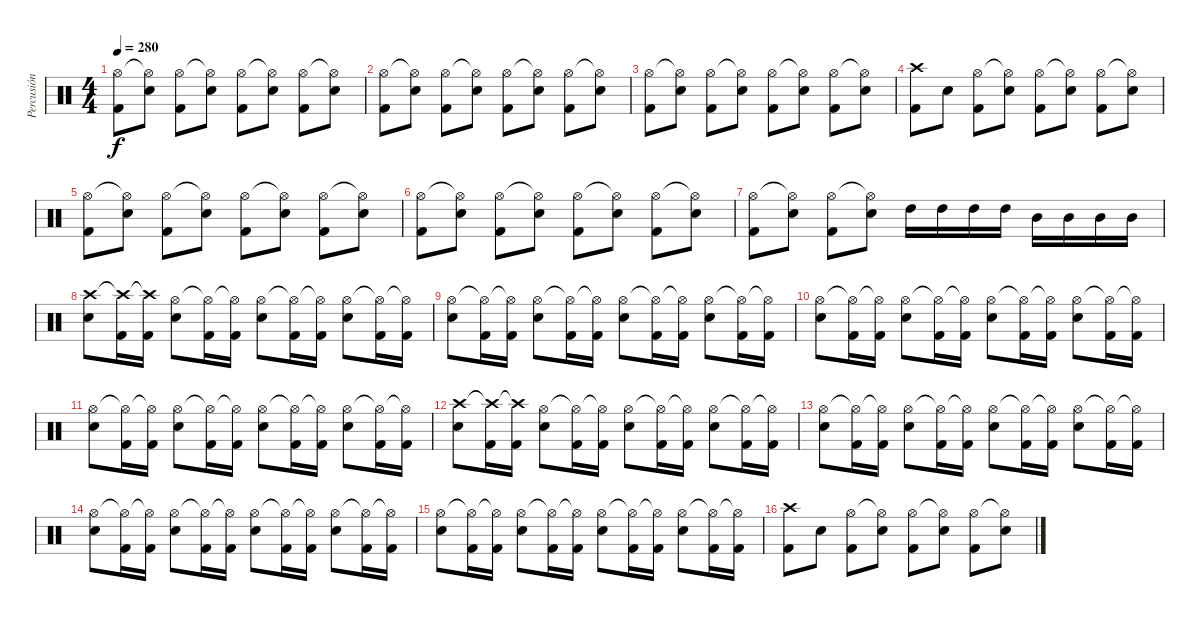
\track ("Percusión" "Percusión") {instrument percussion}
\staff {score}
\articulation defaults
\ts (4 4)
\tempo 280
\clef neutral
\ks c
("Kick (hit) 2" "Hi-Hat (open)").8{dy f} ("Snare (hit) 2" "Hi-Hat (open)"{t}).8 ("Kick (hit) 2" "Hi-Hat (open)").8 ("Snare (hit) 2" "Hi-Hat (open)"{t}).8 ("Kick (hit) 2" "Hi-Hat (open)").8 ("Snare (hit) 2" "Hi-Hat (open)"{t}).8 ("Kick (hit) 2" "Hi-Hat (open)").8 ("Snare (hit) 2" "Hi-Hat (open)"{t}).8 |
("Kick (hit) 2" "Hi-Hat (open)").8 ("Snare (hit) 2" "Hi-Hat (open)"{t}).8 ("Kick (hit) 2" "Hi-Hat (open)").8 ("Snare (hit) 2" "Hi-Hat (open)"{t}).8 ("Kick (hit) 2" "Hi-Hat (open)").8 ("Snare (hit) 2" "Hi-Hat (open)"{t}).8 ("Kick (hit) 2" "Hi-Hat (open)").8 ("Snare (hit) 2" "Hi-Hat (open)"{t}).8 |
("Kick (hit) 2" "Hi-Hat (open)").8 ("Snare (hit) 2" "Hi-Hat (open)"{t}).8 ("Kick (hit) 2" "Hi-Hat (open)").8 ("Snare (hit) 2" "Hi-Hat (open)"{t}).8 ("Kick (hit) 2" "Hi-Hat (open)").8 ("Snare (hit) 2" "Hi-Hat (open)"{t}).8 ("Kick (hit) 2" "Hi-Hat (open)").8 ("Snare (hit) 2" "Hi-Hat (open)"{t}).8 |
("Kick (hit) 2" "Crash high (hit)").8 "Snare (hit) 2".8 ("Kick (hit) 2" "Hi-Hat (open)").8 ("Snare (hit) 2" "Hi-Hat (open)"{t}).8 ("Kick (hit) 2" "Hi-Hat (open)").8 ("Snare (hit) 2" "Hi-Hat (open)"{t}).8 ("Kick (hit) 2" "Hi-Hat (open)").8 ("Snare (hit) 2" "Hi-Hat (open)"{t}).8 |
("Kick (hit) 2" "Hi-Hat (open)").8 ("Snare (hit) 2" "Hi-Hat (open)"{t}).8 ("Kick (hit) 2" "Hi-Hat (open)").8 ("Snare (hit) 2" "Hi-Hat (open)"{t}).8 ("Kick (hit) 2" "Hi-Hat (open)").8 ("Snare (hit) 2" "Hi-Hat (open)"{t}).8 ("Kick (hit) 2" "Hi-Hat (open)").8 ("Snare (hit) 2" "Hi-Hat (open)"{t}).8 |
("Kick (hit) 2" "Hi-Hat (open)").8 ("Snare (hit) 2" "Hi-Hat (open)"{t}).8 ("Kick (hit) 2" "Hi-Hat (open)").8 ("Snare (hit) 2" "Hi-Hat (open)"{t}).8 ("Kick (hit) 2" "Hi-Hat (open)").8 ("Snare (hit) 2" "Hi-Hat (open)"{t}).8 ("Kick (hit) 2" "Hi-Hat (open)").8 ("Snare (hit) 2" "Hi-Hat (open)"{t}).8 |
("Kick (hit) 2" "Hi-Hat (open)").8 ("Snare (hit) 2" "Hi-Hat (open)"{t}).8 ("Kick (hit) 2" "Hi-Hat (open)").8 ("Snare (hit) 2" "Hi-Hat (open)"{t}).8 "High Tom (hit)".16 "High Tom (hit)".16 "High Tom (hit)".16 "High Tom (hit)".16 "Mid Tom (hit)".16 "Mid Tom (hit)".16 "Mid Tom (hit)".16 "Mid Tom (hit)".16 |
("Snare (hit) 2" "Crash high (hit)").8 ("Kick (hit) 2" "Crash high (hit)"{t}).16 ("Kick (hit) 2" "Crash high (hit)"{t}).16 ("Snare (hit) 2" "Hi-Hat (open)").8 ("Kick (hit) 2" "Hi-Hat (open)"{t}).16 ("Kick (hit) 2" "Hi-Hat (open)"{t}).16 ("Snare (hit) 2" "Hi-Hat (open)").8 ("Kick (hit) 2" "Hi-Hat (open)"{t}).16 ("Kick (hit) 2" "Hi-Hat (open)"{t}).16 ("Snare (hit) 2" "Hi-Hat (open)").8 ("Kick (hit) 2" "Hi-Hat (open)"{t}).16 ("Kick (hit) 2" "Hi-Hat (open)"{t}).16 |
("Snare (hit) 2" "Hi-Hat (open)").8 ("Kick (hit) 2" "Hi-Hat (open)"{t}).16 ("Kick (hit) 2" "Hi-Hat (open)"{t}).16 ("Snare (hit) 2" "Hi-Hat (open)").8 ("Kick (hit) 2" "Hi-Hat (open)"{t}).16 ("Kick (hit) 2" "Hi-Hat (open)"{t}).16 ("Snare (hit) 2" "Hi-Hat (open)").8 ("Kick (hit) 2" "Hi-Hat (open)"{t}).16 ("Kick (hit) 2" "Hi-Hat (open)"{t}).16 ("Snare (hit) 2" "Hi-Hat (open)").8 ("Kick (hit) 2" "Hi-Hat (open)"{t}).16 ("Kick (hit) 2" "Hi-Hat (open)"{t}).16 |
("Snare (hit) 2" "Hi-Hat (open)").8 ("Kick (hit) 2" "Hi-Hat (open)"{t}).16 ("Kick (hit) 2" "Hi-Hat (open)"{t}).16 ("Snare (hit) 2" "Hi-Hat (open)").8 ("Kick (hit) 2" "Hi-Hat (open)"{t}).16 ("Kick (hit) 2" "Hi-Hat (open)"{t}).16 ("Snare (hit) 2" "Hi-Hat (open)").8 ("Kick (hit) 2" "Hi-Hat (open)"{t}).16 ("Kick (hit) 2" "Hi-Hat (open)"{t}).16 ("Snare (hit) 2" "Hi-Hat (open)").8 ("Kick (hit) 2" "Hi-Hat (open)"{t}).16 ("Kick (hit) 2" "Hi-Hat (open)"{t}).16 |
("Snare (hit) 2" "Hi-Hat (open)").8 ("Kick (hit) 2" "Hi-Hat (open)"{t}).16 ("Kick (hit) 2" "Hi-Hat (open)"{t}).16 ("Snare (hit) 2" "Hi-Hat (open)").8 ("Kick (hit) 2" "Hi-Hat (open)"{t}).16 ("Kick (hit) 2" "Hi-Hat (open)"{t}).16 ("Snare (hit) 2" "Hi-Hat (open)").8 ("Kick (hit) 2" "Hi-Hat (open)"{t}).16 ("Kick (hit) 2" "Hi-Hat (open)"{t}).16 ("Snare (hit) 2" "Hi-Hat (open)").8 ("Kick (hit) 2" "Hi-Hat (open)"{t}).16 ("Kick (hit) 2" "Hi-Hat (open)"{t}).16 |
("Snare (hit) 2" "Crash high (hit)").8 ("Kick (hit) 2" "Crash high (hit)"{t}).16 ("Kick (hit) 2" "Crash high (hit)"{t}).16 ("Snare (hit) 2" "Hi-Hat (open)").8 ("Kick (hit) 2" "Hi-Hat (open)"{t}).16 ("Kick (hit) 2" "Hi-Hat (open)"{t}).16 ("Snare (hit) 2" "Hi-Hat (open)").8 ("Kick (hit) 2" "Hi-Hat (open)"{t}).16 ("Kick (hit) 2" "Hi-Hat (open)"{t}).16 ("Snare (hit) 2" "Hi-Hat (open)").8 ("Kick (hit) 2" "Hi-Hat (open)"{t}).16 ("Kick (hit) 2" "Hi-Hat (open)"{t}).16 |
("Snare (hit) 2" "Hi-Hat (open)").8 ("Kick (hit) 2" "Hi-Hat (open)"{t}).16 ("Kick (hit) 2" "Hi-Hat (open)"{t}).16 ("Snare (hit) 2" "Hi-Hat (open)").8 ("Kick (hit) 2" "Hi-Hat (open)"{t}).16 ("Kick (hit) 2" "Hi-Hat (open)"{t}).16 ("Snare (hit) 2" "Hi-Hat (open)").8 ("Kick (hit) 2" "Hi-Hat (open)"{t}).16 ("Kick (hit) 2" "Hi-Hat (open)"{t}).16 ("Snare (hit) 2" "Hi-Hat (open)").8 ("Kick (hit) 2" "Hi-Hat (open)"{t}).16 ("Kick (hit) 2" "Hi-Hat (open)"{t}).16 |
("Snare (hit) 2" "Hi-Hat (open)").8 ("Kick (hit) 2" "Hi-Hat (open)"{t}).16 ("Kick (hit) 2" "Hi-Hat (open)"{t}).16 ("Snare (hit) 2" "Hi-Hat (open)").8 ("Kick (hit) 2" "Hi-Hat (open)"{t}).16 ("Kick (hit) 2" "Hi-Hat (open)"{t}).16 ("Snare (hit) 2" "Hi-Hat (open)").8 ("Kick (hit) 2" "Hi-Hat (open)"{t}).16 ("Kick (hit) 2" "Hi-Hat (open)"{t}).16 ("Snare (hit) 2" "Hi-Hat (open)").8 ("Kick (hit) 2" "Hi-Hat (open)"{t}).16 ("Kick (hit) 2" "Hi-Hat (open)"{t}).16 |
("Snare (hit) 2" "Hi-Hat (open)").8 ("Kick (hit) 2" "Hi-Hat (open)"{t}).16 ("Kick (hit) 2" "Hi-Hat (open)"{t}).16 ("Snare (hit) 2" "Hi-Hat (open)").8 ("Kick (hit) 2" "Hi-Hat (open)"{t}).16 ("Kick (hit) 2" "Hi-Hat (open)"{t}).16 ("Snare (hit) 2" "Hi-Hat (open)").8 ("Kick (hit) 2" "Hi-Hat (open)"{t}).16 ("Kick (hit) 2" "Hi-Hat (open)"{t}).16 ("Snare (hit) 2" "Hi-Hat (open)").8 ("Kick (hit) 2" "Hi-Hat (open)"{t}).16 ("Kick (hit) 2" "Hi-Hat (open)"{t}).16 |
("Kick (hit) 2" "Crash high (hit)").8 "Snare (hit) 2".8 ("Kick (hit) 2" "Hi-Hat (open)").8 ("Snare (hit) 2" "Hi-Hat (open)"{t}).8 ("Kick (hit) 2" "Hi-Hat (open)").8 ("Snare (hit) 2" "Hi-Hat (open)"{t}).8 ("Kick (hit) 2" "Hi-Hat (open)").8 ("Snare (hit) 2" "Hi-Hat (open)"{t}).8
